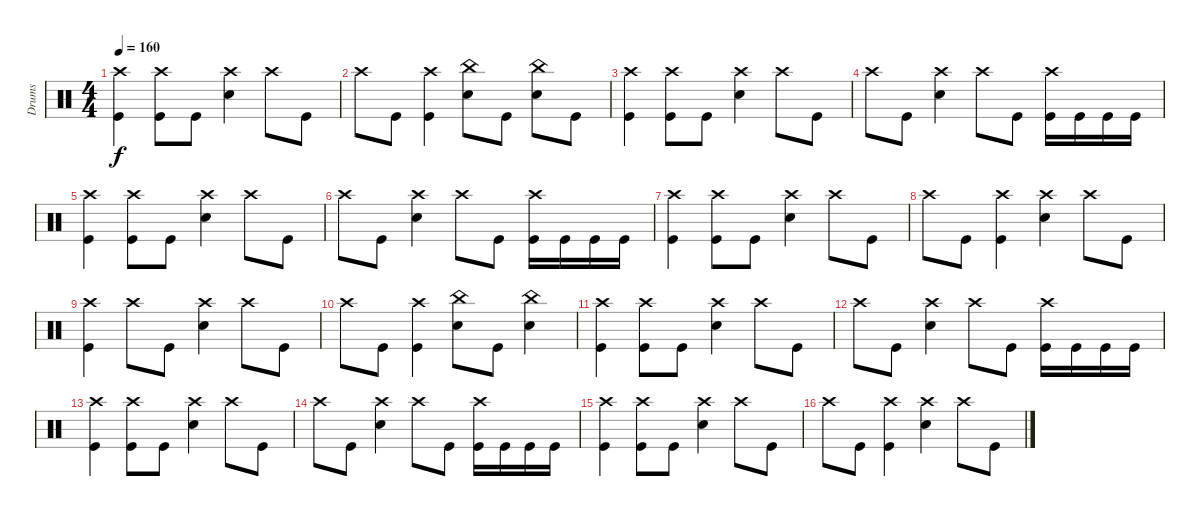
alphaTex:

\track ("Drums" "Drums") {instrument percussion}
\staff {score}
\articulation defaults
\ts (4 4)
\tempo 160
\clef neutral
\ks c
("Kick (hit)" "Crash high (hit)").4{dy f} ("Kick (hit)" "Crash high (hit)").8 "Kick (hit)".8 ("Snare (hit) 2" "Crash high (hit)").4 "Crash high (hit)".8 "Kick (hit)".8 |
"Crash high (hit)".8 "Kick (hit)".8 ("Kick (hit)" "Crash high (hit)").4 ("Snare (hit) 2" "China (hit)").8 "Kick (hit)".8 ("Snare (hit) 2" "China (hit)").8 "Kick (hit)".8 |
("Kick (hit)" "Crash high (hit)").4 ("Kick (hit)" "Crash high (hit)").8 "Kick (hit)".8 ("Crash high (hit)" "Snare (hit) 2").4 "Crash high (hit)".8 "Kick (hit)".8 |
"Crash high (hit)".8 "Kick (hit)".8 ("Snare (hit) 2" "Crash high (hit)").4 "Crash high (hit)".8 "Kick (hit)".8 ("Kick (hit)" "Crash high (hit)").16 "Kick (hit)".16 "Kick (hit)".16 "Kick (hit)".16 |
("Kick (hit)" "Crash high (hit)").4 ("Kick (hit)" "Crash high (hit)").8 "Kick (hit)".8 ("Crash high (hit)" "Snare (hit) 2").4 "Crash high (hit)".8 "Kick (hit)".8 |
"Crash high (hit)".8 "Kick (hit)".8 ("Snare (hit) 2" "Crash high (hit)").4 "Crash high (hit)".8 "Kick (hit)".8 ("Kick (hit)" "Crash high (hit)").16 "Kick (hit)".16 "Kick (hit)".16 "Kick (hit)".16 |
("Kick (hit)" "Crash high (hit)").4 ("Kick (hit)" "Crash high (hit)").8 "Kick (hit)".8 ("Snare (hit) 2" "Crash high (hit)").4 "Crash high (hit)".8 "Kick (hit)".8 |
"Crash high (hit)".8 "Kick (hit)".8 ("Kick (hit)" "Crash high (hit)").4 ("Snare (hit) 2" "Crash high (hit)").4 "Crash high (hit)".8 "Kick (hit)".8 |
("Kick (hit)" "Crash high (hit)").4 "Crash high (hit)".8 "Kick (hit)".8 ("Snare (hit) 2" "Crash high (hit)").4 "Crash high (hit)".8 "Kick (hit)".8 |
"Crash high (hit)".8 "Kick (hit)".8 ("Kick (hit)" "Crash high (hit)").4 ("Snare (hit) 2" "China (hit)").8 "Kick (hit)".8 ("Snare (hit) 2" "China (hit)").4 |
("Kick (hit)" "Crash high (hit)").4 ("Kick (hit)" "Crash high (hit)").8 "Kick (hit)".8 ("Crash high (hit)" "Snare (hit) 2").4 "Crash high (hit)".8 "Kick (hit)".8 |
"Crash high (hit)".8 "Kick (hit)".8 ("Snare (hit) 2" "Crash high (hit)").4 "Crash high (hit)".8 "Kick (hit)".8 ("Kick (hit)" "Crash high (hit)").16 "Kick (hit)".16 "Kick (hit)".16 "Kick (hit)".16 |
("Kick (hit)" "Crash high (hit)").4 ("Kick (hit)" "Crash high (hit)").8 "Kick (hit)".8 ("Crash high (hit)" "Snare (hit) 2").4 "Crash high (hit)".8 "Kick (hit)".8 |
"Crash high (hit)".8 "Kick (hit)".8 ("Snare (hit) 2" "Crash high (hit)").4 "Crash high (hit)".8 "Kick (hit)".8 ("Kick (hit)" "Crash high (hit)").16 "Kick (hit)".16 "Kick (hit)".16 "Kick (hit)".16 |
("Kick (hit)" "Crash high (hit)").4 ("Kick (hit)" "Crash high (hit)").8 "Kick (hit)".8 ("Snare (hit) 2" "Crash high (hit)").4 "Crash high (hit)".8 "Kick (hit)".8 |
"Crash high (hit)".8 "Kick (hit)".8 ("Kick (hit)" "Crash high (hit)").4 ("Snare (hit) 2" "Crash high (hit)").4 "Crash high (hit)".8 "Kick (hit)".8
